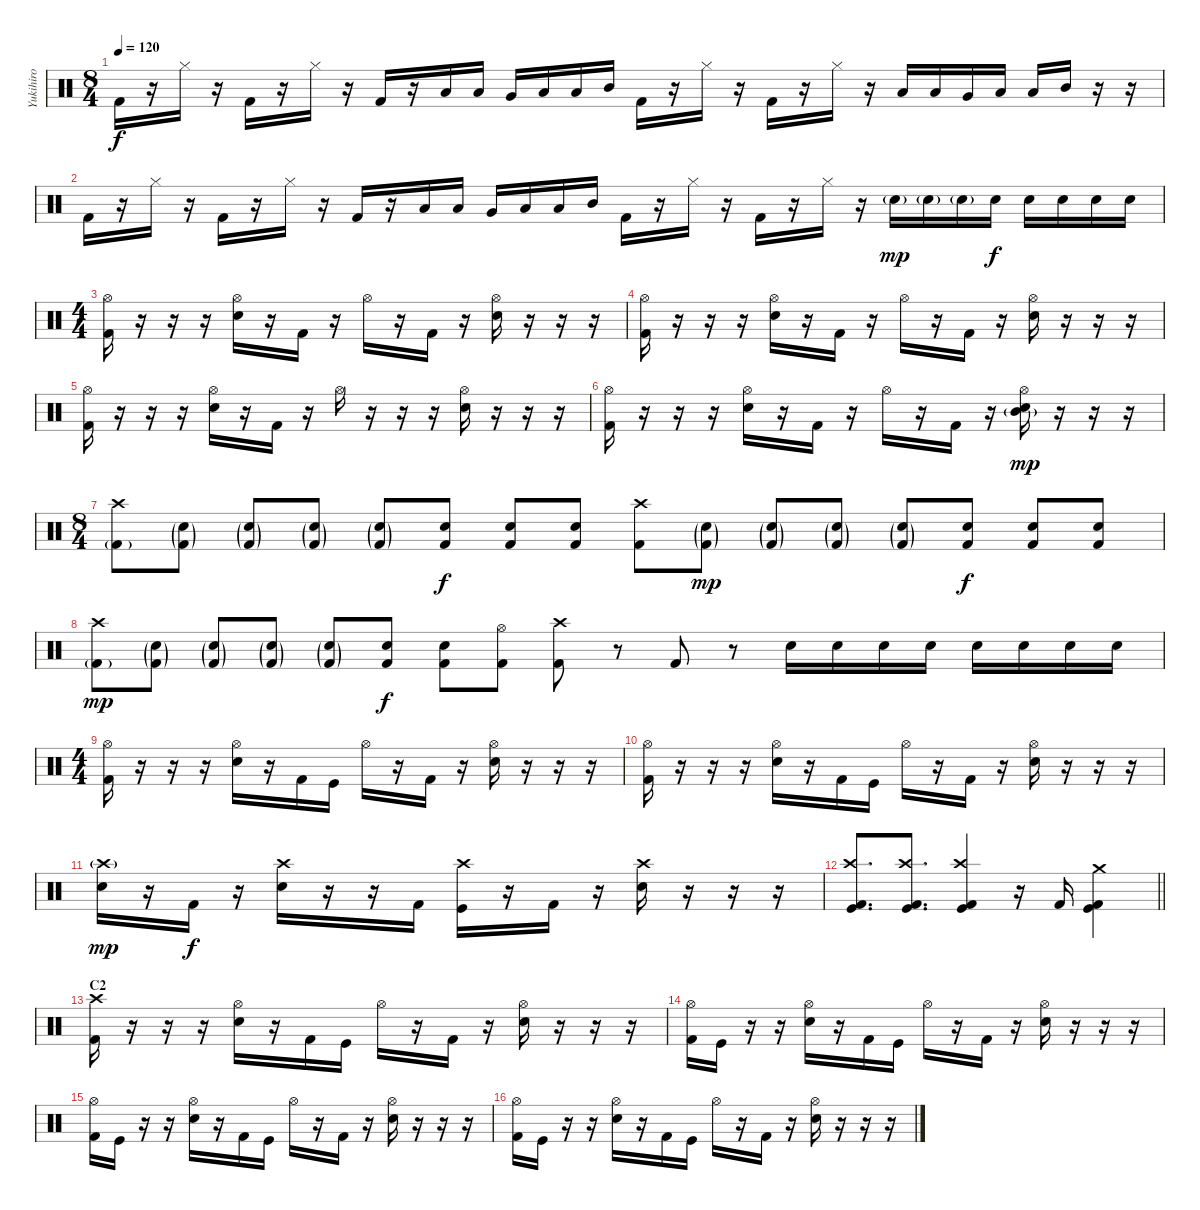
\track ("Yukihiro" "Yukihiro") {instrument percussion}
\staff {score}
\articulation defaults
\ts (8 4)
\tempo 120
\clef neutral
\ks c "Kick (hit) 2".16{dy f}
r.16 "Hi-Hat (closed)".16 r.16 "Kick (hit) 2".16 r.16 "Hi-Hat (closed)".16 r.16 "Kick (hit) 2".16 r.16 "Low Tom (hit)".16 "Low Tom (hit)".16 "Very Low Tom (hit)".16 "Low Tom (hit)".16 "Low Tom (hit)".16 "Mid Tom (hit)".16 "Kick (hit) 2".16 r.16 "Hi-Hat (closed)".16 r.16 "Kick (hit) 2".16 r.16 "Hi-Hat (closed)".16 r.16 "Low Tom (hit)".16 "Low Tom (hit)".16 "Very Low Tom (hit)".16 "Low Tom (hit)".16 "Low Tom (hit)".16 "Mid Tom (hit)".16 r.16 r.16 |
"Kick (hit) 2".16 r.16 "Hi-Hat (closed)".16 r.16 "Kick (hit) 2".16 r.16 "Hi-Hat (closed)".16 r.16 "Kick (hit) 2".16 r.16 "Low Tom (hit)".16 "Low Tom (hit)".16 "Very Low Tom (hit)".16 "Low Tom (hit)".16 "Low Tom (hit)".16 "Mid Tom (hit)".16 "Kick (hit) 2".16 r.16 "Hi-Hat (closed)".16 r.16 "Kick (hit) 2".16 r.16 "Hi-Hat (closed)".16 r.16 "Snare (hit) 2"{g}.16{dy mp} "Snare (hit) 2"{g}.16 "Snare (hit) 2"{g}.16 "Snare (hit) 2".16{dy f} "Snare (hit) 2".16 "Snare (hit) 2".16 "Snare (hit) 2".16 "Snare (hit) 2".16 |
\ts (4 4)
("Hi-Hat (open)" "Kick (hit) 2").16 r.16 r.16 r.16 ("Hi-Hat (open)" "Snare (hit) 2").16 r.16 "Kick (hit) 2".16 r.16 "Hi-Hat (open)".16 r.16 "Kick (hit) 2".16 r.16 ("Hi-Hat (open)" "Snare (hit) 2").16 r.16 r.16 r.16 |
("Hi-Hat (open)" "Kick (hit) 2").16 r.16 r.16 r.16 ("Hi-Hat (open)" "Snare (hit) 2").16 r.16 "Kick (hit) 2".16 r.16 "Hi-Hat (open)".16 r.16 "Kick (hit) 2".16 r.16 ("Hi-Hat (open)" "Snare (hit) 2").16 r.16 r.16 r.16 |
("Hi-Hat (open)" "Kick (hit) 2").16 r.16 r.16 r.16 ("Hi-Hat (open)" "Snare (hit) 2").16 r.16 "Kick (hit) 2".16 r.16 "Hi-Hat (open)".16 r.16 r.16 r.16 ("Hi-Hat (open)" "Snare (hit) 2").16 r.16 r.16 r.16 |
("Hi-Hat (open)" "Kick (hit) 2").16 r.16 r.16 r.16 ("Hi-Hat (open)" "Snare (hit) 2").16 r.16 "Kick (hit) 2".16 r.16 "Hi-Hat (open)".16 r.16 "Kick (hit) 2".16 r.16 ("Mid Tom (hit)"{g} "Hi-Hat (open)" "Snare (hit) 2").16{dy mp} r.16 r.16 r.16 |
\ts (8 4)
("Crash high (hit)" "Kick (hit) 2"{g}).8 ("Snare (hit) 2"{g} "Kick (hit) 2"{g}).8 ("Snare (hit) 2"{g} "Kick (hit) 2"{g}).8 ("Snare (hit) 2"{g} "Kick (hit) 2"{g}).8 ("Snare (hit) 2"{g} "Kick (hit) 2"{g}).8 ("Snare (hit) 2" "Kick (hit) 2").8{dy f} ("Snare (hit) 2" "Kick (hit) 2").8 ("Snare (hit) 2" "Kick (hit) 2").8 ("Crash high (hit)" "Kick (hit) 2").8 ("Snare (hit) 2"{g} "Kick (hit) 2"{g}).8{dy mp} ("Snare (hit) 2"{g} "Kick (hit) 2"{g}).8 ("Snare (hit) 2"{g} "Kick (hit) 2"{g}).8 ("Snare (hit) 2"{g} "Kick (hit) 2"{g}).8 ("Snare (hit) 2" "Kick (hit) 2").8{dy f} ("Snare (hit) 2" "Kick (hit) 2").8 ("Snare (hit) 2" "Kick (hit) 2").8 |
("Crash high (hit)" "Kick (hit) 2"{g}).8{dy mp} ("Snare (hit) 2"{g} "Kick (hit) 2"{g}).8 ("Snare (hit) 2"{g} "Kick (hit) 2"{g}).8 ("Snare (hit) 2"{g} "Kick (hit) 2"{g}).8 ("Snare (hit) 2"{g} "Kick (hit) 2"{g}).8 ("Snare (hit) 2" "Kick (hit) 2").8{dy f} ("Snare (hit) 2" "Kick (hit) 2").8 ("Hi-Hat (open)" "Kick (hit) 2").8 ("Crash high (hit)" "Kick (hit) 2").8 r.8 "Kick (hit) 2".8 r.8 "Snare (hit) 2".16 "Snare (hit) 2".16 "Snare (hit) 2".16 "Snare (hit) 2".16 "Snare (hit) 2".16 "Snare (hit) 2".16 "Snare (hit) 2".16 "Snare (hit) 2".16 |
\ts (4 4)
("Hi-Hat (open)" "Kick (hit) 2").16 r.16 r.16 r.16 ("Hi-Hat (open)" "Snare (hit) 2").16 r.16 "Kick (hit) 2".16 "Kick (hit)".16 "Hi-Hat (open)".16 r.16 "Kick (hit) 2".16 r.16 ("Hi-Hat (open)" "Snare (hit) 2").16 r.16 r.16 r.16 |
("Hi-Hat (open)" "Kick (hit) 2").16 r.16 r.16 r.16 ("Hi-Hat (open)" "Snare (hit) 2").16 r.16 "Kick (hit) 2".16 "Kick (hit)".16 "Hi-Hat (open)".16 r.16 "Kick (hit) 2".16 r.16 ("Hi-Hat (open)" "Snare (hit) 2").16 r.16 r.16 r.16 |
("Crash high (hit)"{g} "Snare (hit) 2").16{dy mp} r.16 "Kick (hit) 2".16{dy f} r.16 ("Crash high (hit)" "Snare (hit) 2").16 r.16 r.16 "Kick (hit) 2".16 ("Crash high (hit)" "Kick (hit)").16 r.16 "Kick (hit) 2".16 r.16 ("Crash high (hit)" "Snare (hit) 2").16 r.16 r.16 r.16 |
\barLineRight lightlight
("Crash high (hit)" "Kick (hit)" "Kick (hit) 2").8{d} ("Crash high (hit)" "Kick (hit)" "Kick (hit) 2").8{d} ("Crash high (hit)" "Kick (hit)" "Kick (hit) 2").4 r.16 "Kick (hit) 2".16 ("Crash medium (hit)" "Kick (hit)" "Kick (hit) 2").4 |
\section ("" "C2")
("Crash high (hit)" "Kick (hit) 2").16 r.16 r.16 r.16 ("Hi-Hat (open)" "Snare (hit) 2").16 r.16 "Kick (hit) 2".16 "Kick (hit)".16 "Hi-Hat (open)".16 r.16 "Kick (hit) 2".16 r.16 ("Hi-Hat (open)" "Snare (hit) 2").16 r.16 r.16 r.16 |
("Hi-Hat (open)" "Kick (hit) 2").16 "Kick (hit)".16 r.16 r.16 ("Hi-Hat (open)" "Snare (hit) 2").16 r.16 "Kick (hit) 2".16 "Kick (hit)".16 "Hi-Hat (open)".16 r.16 "Kick (hit) 2".16 r.16 ("Hi-Hat (open)" "Snare (hit) 2").16 r.16 r.16 r.16 |
("Hi-Hat (open)" "Kick (hit) 2").16 "Kick (hit)".16 r.16 r.16 ("Hi-Hat (open)" "Snare (hit) 2").16 r.16 "Kick (hit) 2".16 "Kick (hit)".16 "Hi-Hat (open)".16 r.16 "Kick (hit) 2".16 r.16 ("Hi-Hat (open)" "Snare (hit) 2").16 r.16 r.16 r.16 |
("Hi-Hat (open)" "Kick (hit) 2").16 "Kick (hit)".16 r.16 r.16 ("Hi-Hat (open)" "Snare (hit) 2").16 r.16 "Kick (hit) 2".16 "Kick (hit)".16 "Hi-Hat (open)".16 r.16 "Kick (hit) 2".16 r.16 ("Hi-Hat (open)" "Snare (hit) 2").16 r.16 r.16 r.16
